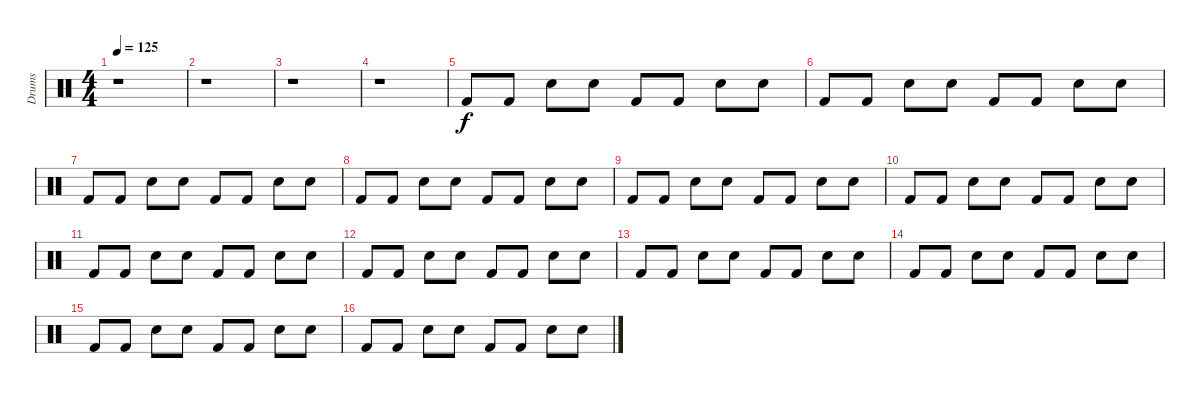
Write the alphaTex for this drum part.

\track ("Drums" "Drums") {instrument percussion}
\staff {score}
\articulation defaults
\ts (4 4)
\tempo 125
\clef neutral
\ks c
r.1{dy f} |
r.1 |
r.1 |
r.1 |
"Kick (hit) 2".8 "Kick (hit) 2".8 "Electric Snare (hit)".8 "Snare (hit)".8 "Kick (hit) 2".8 "Kick (hit) 2".8 "Electric Snare (hit)".8 "Snare (hit)".8 |
"Kick (hit) 2".8 "Kick (hit) 2".8 "Electric Snare (hit)".8 "Snare (hit)".8 "Kick (hit) 2".8 "Kick (hit) 2".8 "Electric Snare (hit)".8 "Snare (hit)".8 |
"Kick (hit) 2".8 "Kick (hit) 2".8 "Electric Snare (hit)".8 "Snare (hit)".8 "Kick (hit) 2".8 "Kick (hit) 2".8 "Electric Snare (hit)".8 "Snare (hit)".8 |
"Kick (hit) 2".8 "Kick (hit) 2".8 "Electric Snare (hit)".8 "Snare (hit)".8 "Kick (hit) 2".8 "Kick (hit) 2".8 "Electric Snare (hit)".8 "Snare (hit)".8 |
"Kick (hit) 2".8 "Kick (hit) 2".8 "Electric Snare (hit)".8 "Snare (hit)".8 "Kick (hit) 2".8 "Kick (hit) 2".8 "Electric Snare (hit)".8 "Snare (hit)".8 |
"Kick (hit) 2".8 "Kick (hit) 2".8 "Electric Snare (hit)".8 "Snare (hit)".8 "Kick (hit) 2".8 "Kick (hit) 2".8 "Electric Snare (hit)".8 "Snare (hit)".8 |
"Kick (hit) 2".8 "Kick (hit) 2".8 "Electric Snare (hit)".8 "Snare (hit)".8 "Kick (hit) 2".8 "Kick (hit) 2".8 "Electric Snare (hit)".8 "Snare (hit)".8 |
"Kick (hit) 2".8 "Kick (hit) 2".8 "Electric Snare (hit)".8 "Snare (hit)".8 "Kick (hit) 2".8 "Kick (hit) 2".8 "Electric Snare (hit)".8 "Snare (hit)".8 |
"Kick (hit) 2".8 "Kick (hit) 2".8 "Electric Snare (hit)".8 "Snare (hit)".8 "Kick (hit) 2".8 "Kick (hit) 2".8 "Electric Snare (hit)".8 "Snare (hit)".8 |
"Kick (hit) 2".8 "Kick (hit) 2".8 "Electric Snare (hit)".8 "Snare (hit)".8 "Kick (hit) 2".8 "Kick (hit) 2".8 "Electric Snare (hit)".8 "Snare (hit)".8 |
"Kick (hit) 2".8 "Kick (hit) 2".8 "Electric Snare (hit)".8 "Snare (hit)".8 "Kick (hit) 2".8 "Kick (hit) 2".8 "Electric Snare (hit)".8 "Snare (hit)".8 |
"Kick (hit) 2".8 "Kick (hit) 2".8 "Electric Snare (hit)".8 "Snare (hit)".8 "Kick (hit) 2".8 "Kick (hit) 2".8 "Electric Snare (hit)".8 "Snare (hit)".8
